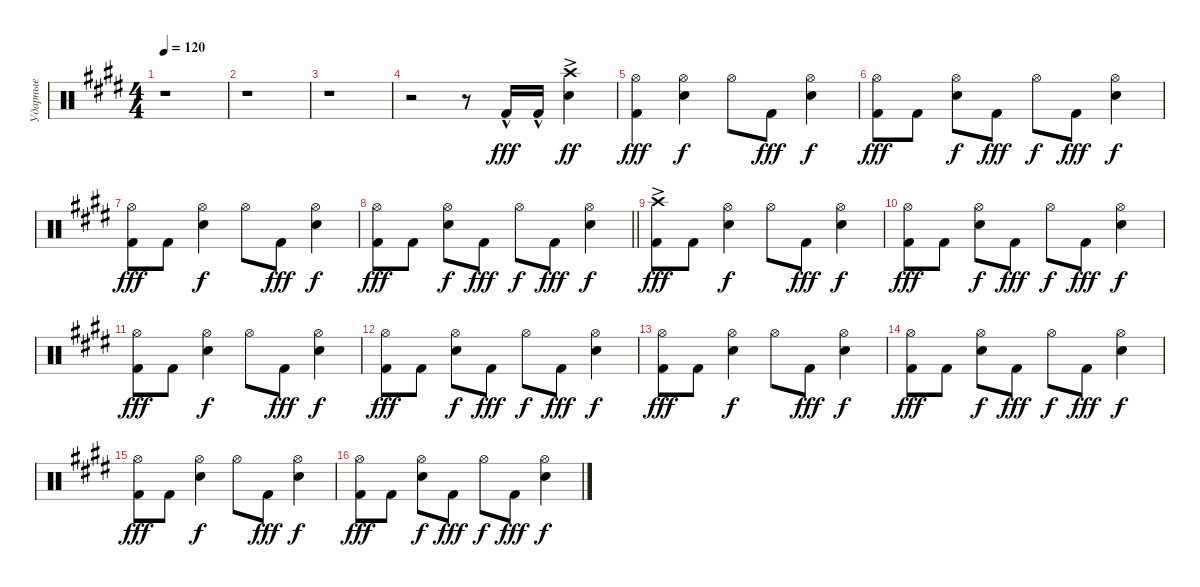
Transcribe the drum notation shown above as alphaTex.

\track ("Ударные" "Ударные") {instrument percussion}
\staff {score}
\articulation defaults
\ts (4 4)
\tempo 120
\clef neutral
\ks e
r.1{dy fff} |
r.1 |
r.1 |
r.2 r.8 "Kick (hit) 2"{hac}.16 "Kick (hit) 2"{hac}.16 ("Snare (hit) 2" "Crash high (hit)"{ac}).4{dy ff} |
("Kick (hit) 2" "Hi-Hat (open)").4{dy fff} ("Snare (hit) 2" "Hi-Hat (open)").4{dy f} "Hi-Hat (open)".8 "Kick (hit) 2".8{dy fff} ("Snare (hit) 2" "Hi-Hat (open)").4{dy f} |
("Kick (hit) 2" "Hi-Hat (open)").8{dy fff} "Kick (hit) 2".8 ("Snare (hit) 2" "Hi-Hat (open)").8{dy f} "Kick (hit) 2".8{dy fff} "Hi-Hat (open)".8{dy f} "Kick (hit) 2".8{dy fff} ("Snare (hit) 2" "Hi-Hat (open)").4{dy f} |
("Kick (hit) 2" "Hi-Hat (open)").8{dy fff} "Kick (hit) 2".8 ("Snare (hit) 2" "Hi-Hat (open)").4{dy f} "Hi-Hat (open)".8 "Kick (hit) 2".8{dy fff} ("Snare (hit) 2" "Hi-Hat (open)").4{dy f} |
\barLineRight lightlight
("Kick (hit) 2" "Hi-Hat (open)").8{dy fff} "Kick (hit) 2".8 ("Snare (hit) 2" "Hi-Hat (open)").8{dy f} "Kick (hit) 2".8{dy fff} "Hi-Hat (open)".8{dy f} "Kick (hit) 2".8{dy fff} ("Snare (hit) 2" "Hi-Hat (open)").4{dy f} |
("Kick (hit) 2" "Crash high (hit)"{ac}).8{dy fff} "Kick (hit) 2".8 ("Snare (hit) 2" "Hi-Hat (open)").4{dy f} "Hi-Hat (open)".8 "Kick (hit) 2".8{dy fff} ("Snare (hit) 2" "Hi-Hat (open)").4{dy f} |
("Kick (hit) 2" "Hi-Hat (open)").8{dy fff} "Kick (hit) 2".8 ("Snare (hit) 2" "Hi-Hat (open)").8{dy f} "Kick (hit) 2".8{dy fff} "Hi-Hat (open)".8{dy f} "Kick (hit) 2".8{dy fff} ("Snare (hit) 2" "Hi-Hat (open)").4{dy f} |
("Kick (hit) 2" "Hi-Hat (open)").8{dy fff} "Kick (hit) 2".8 ("Snare (hit) 2" "Hi-Hat (open)").4{dy f} "Hi-Hat (open)".8 "Kick (hit) 2".8{dy fff} ("Snare (hit) 2" "Hi-Hat (open)").4{dy f} |
("Kick (hit) 2" "Hi-Hat (open)").8{dy fff} "Kick (hit) 2".8 ("Snare (hit) 2" "Hi-Hat (open)").8{dy f} "Kick (hit) 2".8{dy fff} "Hi-Hat (open)".8{dy f} "Kick (hit) 2".8{dy fff} ("Snare (hit) 2" "Hi-Hat (open)").4{dy f} |
("Kick (hit) 2" "Hi-Hat (open)").8{dy fff} "Kick (hit) 2".8 ("Snare (hit) 2" "Hi-Hat (open)").4{dy f} "Hi-Hat (open)".8 "Kick (hit) 2".8{dy fff} ("Snare (hit) 2" "Hi-Hat (open)").4{dy f} |
("Kick (hit) 2" "Hi-Hat (open)").8{dy fff} "Kick (hit) 2".8 ("Snare (hit) 2" "Hi-Hat (open)").8{dy f} "Kick (hit) 2".8{dy fff} "Hi-Hat (open)".8{dy f} "Kick (hit) 2".8{dy fff} ("Snare (hit) 2" "Hi-Hat (open)").4{dy f} |
("Kick (hit) 2" "Hi-Hat (open)").8{dy fff} "Kick (hit) 2".8 ("Snare (hit) 2" "Hi-Hat (open)").4{dy f} "Hi-Hat (open)".8 "Kick (hit) 2".8{dy fff} ("Snare (hit) 2" "Hi-Hat (open)").4{dy f} |
("Kick (hit) 2" "Hi-Hat (open)").8{dy fff} "Kick (hit) 2".8 ("Snare (hit) 2" "Hi-Hat (open)").8{dy f} "Kick (hit) 2".8{dy fff} "Hi-Hat (open)".8{dy f} "Kick (hit) 2".8{dy fff} ("Snare (hit) 2" "Hi-Hat (open)").4{dy f}
